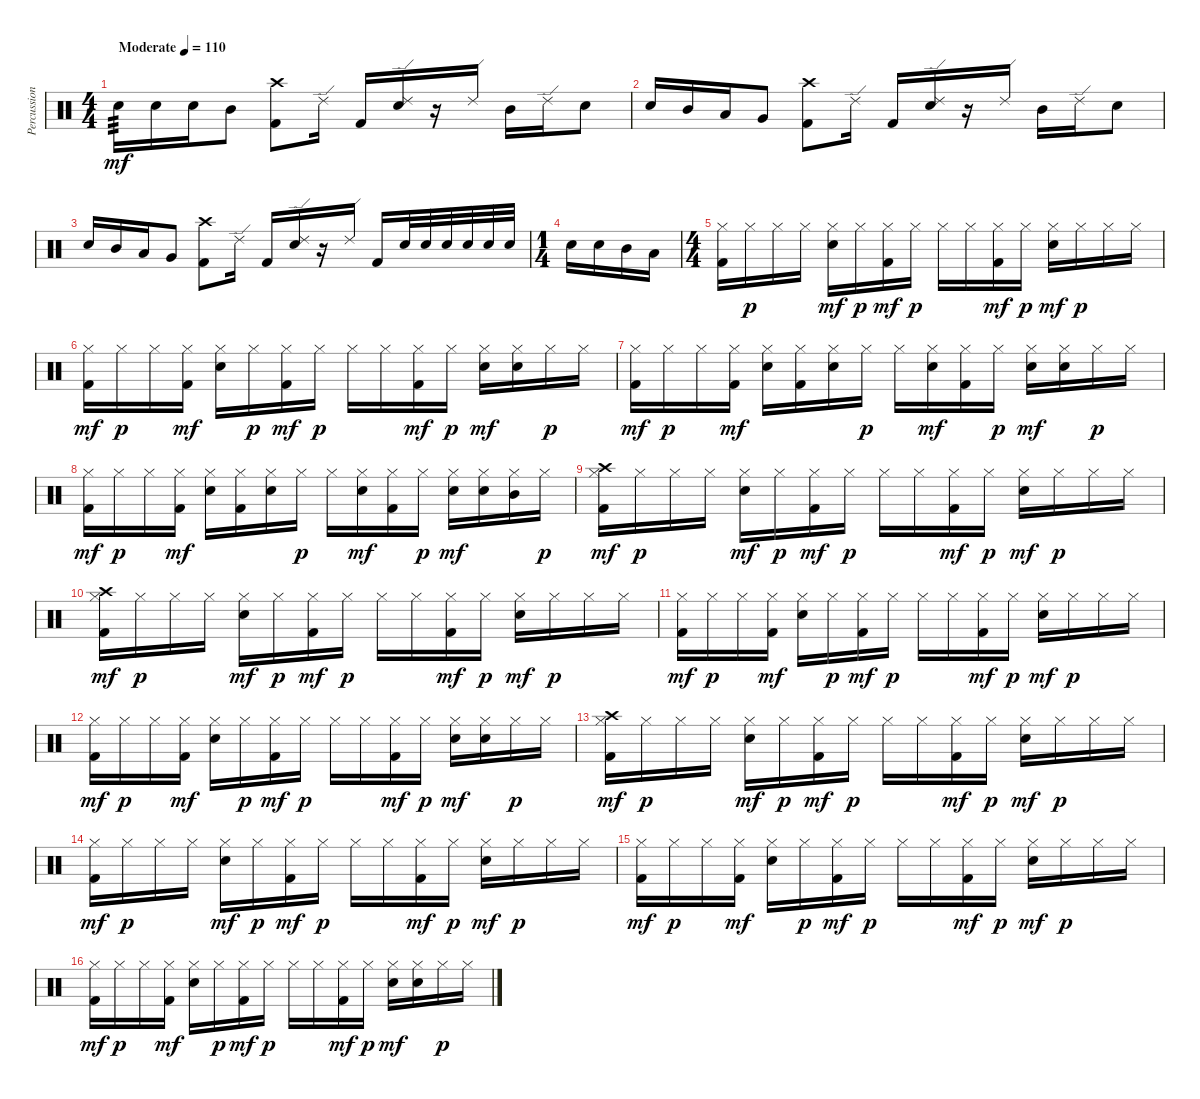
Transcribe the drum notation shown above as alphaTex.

\track ("Percussion" "Percussion") {instrument percussion}
\staff {score}
\articulation defaults
\ts (4 4)
\tempo (110 "Moderate")
\clef neutral
\ks c "Electric Snare (hit)".16{tp 3 dy mf} "Electric Snare (hit)".16 "Electric Snare (hit)".16 "Mid Tom (hit)".8
("Crash high (hit)" "Kick (hit) 2").8 "Ride (edge) 2".16 "Kick (hit) 2".16 ("Ride (edge) 2" "Electric Snare (hit)").16 r.16 "Ride (edge) 2".16 "Mid Tom (hit)".16 "Ride (edge) 2".16 "Electric Snare (hit)".8 |
"Electric Snare (hit)".16 "Mid Tom (hit)".16 "Low Tom (hit)".16 "Very Low Tom (hit)".8 ("Crash high (hit)" "Kick (hit) 2").8 "Ride (edge) 2".16 "Kick (hit) 2".16 ("Ride (edge) 2" "Electric Snare (hit)").16 r.16 "Ride (edge) 2".16 "Mid Tom (hit)".16 "Ride (edge) 2".16 "Electric Snare (hit)".8 |
"Electric Snare (hit)".16 "Mid Tom (hit)".16 "Low Tom (hit)".16 "Very Low Tom (hit)".8 ("Crash high (hit)" "Kick (hit) 2").8 "Ride (edge) 2".16 "Kick (hit) 2".16 ("Ride (edge) 2" "Electric Snare (hit)").16 r.16 "Ride (edge) 2".16 "Kick (hit) 2".16 "Electric Snare (hit)".32 "Electric Snare (hit)".32 "Electric Snare (hit)".32 "Electric Snare (hit)".32 "Electric Snare (hit)".32 "Electric Snare (hit)".32 |
\ts (1 4)
"Electric Snare (hit)".16 "Electric Snare (hit)".16 "Mid Tom (hit)".16 "Low Tom (hit)".16 |
\ts (4 4)
("Hi-Hat (closed)" "Kick (hit) 2").16 "Hi-Hat (closed)".16{dy p} "Hi-Hat (closed)".16 "Hi-Hat (closed)".16 ("Hi-Hat (closed)" "Electric Snare (hit)").16{dy mf} "Hi-Hat (closed)".16{dy p} ("Hi-Hat (closed)" "Kick (hit) 2").16{dy mf} "Hi-Hat (closed)".16{dy p} "Hi-Hat (closed)".16 "Hi-Hat (closed)".16 ("Hi-Hat (closed)" "Kick (hit) 2").16{dy mf} "Hi-Hat (closed)".16{dy p} ("Hi-Hat (closed)" "Electric Snare (hit)").16{dy mf} "Hi-Hat (closed)".16{dy p} "Hi-Hat (closed)".16 "Hi-Hat (closed)".16 |
("Hi-Hat (closed)" "Kick (hit) 2").16{dy mf} "Hi-Hat (closed)".16{dy p} "Hi-Hat (closed)".16 ("Hi-Hat (closed)" "Kick (hit) 2").16{dy mf} ("Hi-Hat (closed)" "Electric Snare (hit)").16 "Hi-Hat (closed)".16{dy p} ("Hi-Hat (closed)" "Kick (hit) 2").16{dy mf} "Hi-Hat (closed)".16{dy p} "Hi-Hat (closed)".16 "Hi-Hat (closed)".16 ("Hi-Hat (closed)" "Kick (hit) 2").16{dy mf} "Hi-Hat (closed)".16{dy p} ("Hi-Hat (closed)" "Electric Snare (hit)").16{dy mf} ("Hi-Hat (closed)" "Electric Snare (hit)").16 "Hi-Hat (closed)".16{dy p} "Hi-Hat (closed)".16 |
("Hi-Hat (closed)" "Kick (hit) 2").16{dy mf} "Hi-Hat (closed)".16{dy p} "Hi-Hat (closed)".16 ("Hi-Hat (closed)" "Kick (hit) 2").16{dy mf} ("Hi-Hat (closed)" "Electric Snare (hit)").16 ("Hi-Hat (closed)" "Kick (hit) 2").16 ("Hi-Hat (closed)" "Electric Snare (hit)").16 "Hi-Hat (closed)".16{dy p} "Hi-Hat (closed)".16 ("Hi-Hat (closed)" "Electric Snare (hit)").16{dy mf} ("Hi-Hat (closed)" "Kick (hit) 2").16 "Hi-Hat (closed)".16{dy p} ("Hi-Hat (closed)" "Electric Snare (hit)").16{dy mf} ("Hi-Hat (closed)" "Electric Snare (hit)").16 "Hi-Hat (closed)".16{dy p} "Hi-Hat (closed)".16 |
("Hi-Hat (closed)" "Kick (hit) 2").16{dy mf} "Hi-Hat (closed)".16{dy p} "Hi-Hat (closed)".16 ("Hi-Hat (closed)" "Kick (hit) 2").16{dy mf} ("Hi-Hat (closed)" "Electric Snare (hit)").16 ("Hi-Hat (closed)" "Kick (hit) 2").16 ("Hi-Hat (closed)" "Electric Snare (hit)").16 "Hi-Hat (closed)".16{dy p} "Hi-Hat (closed)".16 ("Hi-Hat (closed)" "Electric Snare (hit)").16{dy mf} ("Hi-Hat (closed)" "Kick (hit) 2").16 "Hi-Hat (closed)".16{dy p} ("Hi-Hat (closed)" "Electric Snare (hit)").16{dy mf} ("Hi-Hat (closed)" "Electric Snare (hit)").16 ("Hi-Hat (closed)" "Mid Tom (hit)").16 "Hi-Hat (closed)".16{dy p} |
("Crash high (hit)" "Hi-Hat (closed)" "Kick (hit) 2").16{dy mf} "Hi-Hat (closed)".16{dy p} "Hi-Hat (closed)".16 "Hi-Hat (closed)".16 ("Hi-Hat (closed)" "Electric Snare (hit)").16{dy mf} "Hi-Hat (closed)".16{dy p} ("Hi-Hat (closed)" "Kick (hit) 2").16{dy mf} "Hi-Hat (closed)".16{dy p} "Hi-Hat (closed)".16 "Hi-Hat (closed)".16 ("Hi-Hat (closed)" "Kick (hit) 2").16{dy mf} "Hi-Hat (closed)".16{dy p} ("Hi-Hat (closed)" "Electric Snare (hit)").16{dy mf} "Hi-Hat (closed)".16{dy p} "Hi-Hat (closed)".16 "Hi-Hat (closed)".16 |
("Crash high (hit)" "Hi-Hat (closed)" "Kick (hit) 2").16{dy mf} "Hi-Hat (closed)".16{dy p} "Hi-Hat (closed)".16 "Hi-Hat (closed)".16 ("Hi-Hat (closed)" "Electric Snare (hit)").16{dy mf} "Hi-Hat (closed)".16{dy p} ("Hi-Hat (closed)" "Kick (hit) 2").16{dy mf} "Hi-Hat (closed)".16{dy p} "Hi-Hat (closed)".16 "Hi-Hat (closed)".16 ("Hi-Hat (closed)" "Kick (hit) 2").16{dy mf} "Hi-Hat (closed)".16{dy p} ("Hi-Hat (closed)" "Electric Snare (hit)").16{dy mf} "Hi-Hat (closed)".16{dy p} "Hi-Hat (closed)".16 "Hi-Hat (closed)".16 |
("Hi-Hat (closed)" "Kick (hit) 2").16{dy mf} "Hi-Hat (closed)".16{dy p} "Hi-Hat (closed)".16 ("Hi-Hat (closed)" "Kick (hit) 2").16{dy mf} ("Hi-Hat (closed)" "Electric Snare (hit)").16 "Hi-Hat (closed)".16{dy p} ("Hi-Hat (closed)" "Kick (hit) 2").16{dy mf} "Hi-Hat (closed)".16{dy p} "Hi-Hat (closed)".16 "Hi-Hat (closed)".16 ("Hi-Hat (closed)" "Kick (hit) 2").16{dy mf} "Hi-Hat (closed)".16{dy p} ("Hi-Hat (closed)" "Electric Snare (hit)").16{dy mf} "Hi-Hat (closed)".16{dy p} "Hi-Hat (closed)".16 "Hi-Hat (closed)".16 |
("Hi-Hat (closed)" "Kick (hit) 2").16{dy mf} "Hi-Hat (closed)".16{dy p} "Hi-Hat (closed)".16 ("Hi-Hat (closed)" "Kick (hit) 2").16{dy mf} ("Hi-Hat (closed)" "Electric Snare (hit)").16 "Hi-Hat (closed)".16{dy p} ("Hi-Hat (closed)" "Kick (hit) 2").16{dy mf} "Hi-Hat (closed)".16{dy p} "Hi-Hat (closed)".16 "Hi-Hat (closed)".16 ("Hi-Hat (closed)" "Kick (hit) 2").16{dy mf} "Hi-Hat (closed)".16{dy p} ("Hi-Hat (closed)" "Electric Snare (hit)").16{dy mf} ("Hi-Hat (closed)" "Electric Snare (hit)").16 "Hi-Hat (closed)".16{dy p} "Hi-Hat (closed)".16 |
("Crash high (hit)" "Hi-Hat (closed)" "Kick (hit) 2").16{dy mf} "Hi-Hat (closed)".16{dy p} "Hi-Hat (closed)".16 "Hi-Hat (closed)".16 ("Hi-Hat (closed)" "Electric Snare (hit)").16{dy mf} "Hi-Hat (closed)".16{dy p} ("Hi-Hat (closed)" "Kick (hit) 2").16{dy mf} "Hi-Hat (closed)".16{dy p} "Hi-Hat (closed)".16 "Hi-Hat (closed)".16 ("Hi-Hat (closed)" "Kick (hit) 2").16{dy mf} "Hi-Hat (closed)".16{dy p} ("Hi-Hat (closed)" "Electric Snare (hit)").16{dy mf} "Hi-Hat (closed)".16{dy p} "Hi-Hat (closed)".16 "Hi-Hat (closed)".16 |
("Hi-Hat (closed)" "Kick (hit) 2").16{dy mf} "Hi-Hat (closed)".16{dy p} "Hi-Hat (closed)".16 "Hi-Hat (closed)".16 ("Hi-Hat (closed)" "Electric Snare (hit)").16{dy mf} "Hi-Hat (closed)".16{dy p} ("Hi-Hat (closed)" "Kick (hit) 2").16{dy mf} "Hi-Hat (closed)".16{dy p} "Hi-Hat (closed)".16 "Hi-Hat (closed)".16 ("Hi-Hat (closed)" "Kick (hit) 2").16{dy mf} "Hi-Hat (closed)".16{dy p} ("Hi-Hat (closed)" "Electric Snare (hit)").16{dy mf} "Hi-Hat (closed)".16{dy p} "Hi-Hat (closed)".16 "Hi-Hat (closed)".16 |
("Hi-Hat (closed)" "Kick (hit) 2").16{dy mf} "Hi-Hat (closed)".16{dy p} "Hi-Hat (closed)".16 ("Hi-Hat (closed)" "Kick (hit) 2").16{dy mf} ("Hi-Hat (closed)" "Electric Snare (hit)").16 "Hi-Hat (closed)".16{dy p} ("Hi-Hat (closed)" "Kick (hit) 2").16{dy mf} "Hi-Hat (closed)".16{dy p} "Hi-Hat (closed)".16 "Hi-Hat (closed)".16 ("Hi-Hat (closed)" "Kick (hit) 2").16{dy mf} "Hi-Hat (closed)".16{dy p} ("Hi-Hat (closed)" "Electric Snare (hit)").16{dy mf} "Hi-Hat (closed)".16{dy p} "Hi-Hat (closed)".16 "Hi-Hat (closed)".16 |
("Hi-Hat (closed)" "Kick (hit) 2").16{dy mf} "Hi-Hat (closed)".16{dy p} "Hi-Hat (closed)".16 ("Hi-Hat (closed)" "Kick (hit) 2").16{dy mf} ("Hi-Hat (closed)" "Electric Snare (hit)").16 "Hi-Hat (closed)".16{dy p} ("Hi-Hat (closed)" "Kick (hit) 2").16{dy mf} "Hi-Hat (closed)".16{dy p} "Hi-Hat (closed)".16 "Hi-Hat (closed)".16 ("Hi-Hat (closed)" "Kick (hit) 2").16{dy mf} "Hi-Hat (closed)".16{dy p} ("Hi-Hat (closed)" "Electric Snare (hit)").16{dy mf} ("Hi-Hat (closed)" "Electric Snare (hit)").16 "Hi-Hat (closed)".16{dy p} "Hi-Hat (closed)".16
